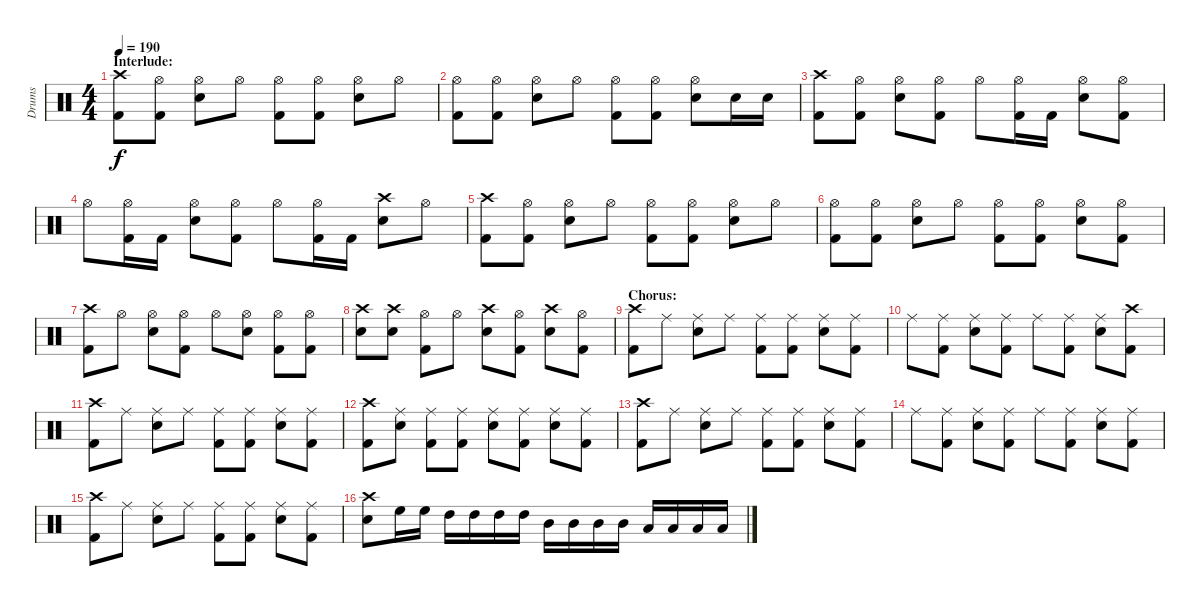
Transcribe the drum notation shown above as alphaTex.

\track ("Drums" "Drums") {instrument percussion}
\staff {score}
\articulation defaults
\ts (4 4)
\section ("" "Interlude:")
\tempo 190
\clef neutral
\ks c
("Crash high (hit)" "Kick (hit) 2").8{dy f} ("Hi-Hat (open)" "Kick (hit) 2").8 ("Hi-Hat (open)" "Electric Snare (hit)").8 "Hi-Hat (open)".8 ("Hi-Hat (open)" "Kick (hit) 2").8 ("Hi-Hat (open)" "Kick (hit) 2").8 ("Hi-Hat (open)" "Electric Snare (hit)").8 "Hi-Hat (open)".8 |
("Hi-Hat (open)" "Kick (hit) 2").8 ("Hi-Hat (open)" "Kick (hit) 2").8 ("Hi-Hat (open)" "Electric Snare (hit)").8 "Hi-Hat (open)".8 ("Hi-Hat (open)" "Kick (hit) 2").8 ("Hi-Hat (open)" "Kick (hit) 2").8 ("Hi-Hat (open)" "Electric Snare (hit)").8 "Electric Snare (hit)".16 "Electric Snare (hit)".16 |
("Crash high (hit)" "Kick (hit) 2").8 ("Hi-Hat (open)" "Kick (hit) 2").8 ("Hi-Hat (open)" "Electric Snare (hit)").8 ("Hi-Hat (open)" "Kick (hit) 2").8 "Hi-Hat (open)".8 ("Hi-Hat (open)" "Kick (hit) 2").16 "Kick (hit) 2".16 ("Hi-Hat (open)" "Electric Snare (hit)").8 ("Hi-Hat (open)" "Kick (hit) 2").8 |
"Hi-Hat (open)".8 ("Hi-Hat (open)" "Kick (hit) 2").16 "Kick (hit) 2".16 ("Hi-Hat (open)" "Electric Snare (hit)").8 ("Hi-Hat (open)" "Kick (hit) 2").8 "Hi-Hat (open)".8 ("Hi-Hat (open)" "Kick (hit) 2").16 "Kick (hit) 2".16 ("Crash high (hit)" "Electric Snare (hit)").8 "Hi-Hat (open)".8 |
("Crash high (hit)" "Kick (hit) 2").8 ("Hi-Hat (open)" "Kick (hit) 2").8 ("Hi-Hat (open)" "Electric Snare (hit)").8 "Hi-Hat (open)".8 ("Hi-Hat (open)" "Kick (hit) 2").8 ("Hi-Hat (open)" "Kick (hit) 2").8 ("Hi-Hat (open)" "Electric Snare (hit)").8 "Hi-Hat (open)".8 |
("Hi-Hat (open)" "Kick (hit) 2").8 ("Hi-Hat (open)" "Kick (hit) 2").8 ("Hi-Hat (open)" "Electric Snare (hit)").8 "Hi-Hat (open)".8 ("Hi-Hat (open)" "Kick (hit) 2").8 ("Hi-Hat (open)" "Kick (hit) 2").8 ("Hi-Hat (open)" "Electric Snare (hit)").8 ("Hi-Hat (open)" "Kick (hit) 2").8 |
("Crash high (hit)" "Kick (hit) 2").8 "Hi-Hat (open)".8 ("Hi-Hat (open)" "Electric Snare (hit)").8 ("Hi-Hat (open)" "Kick (hit) 2").8 "Hi-Hat (open)".8 ("Hi-Hat (open)" "Electric Snare (hit)").8 ("Hi-Hat (open)" "Kick (hit) 2").8 ("Hi-Hat (open)" "Kick (hit) 2").8 |
("Crash high (hit)" "Electric Snare (hit)").8 ("Crash high (hit)" "Electric Snare (hit)").8 ("Hi-Hat (open)" "Kick (hit) 2").8 "Hi-Hat (open)".8 ("Crash high (hit)" "Electric Snare (hit)").8 ("Hi-Hat (open)" "Kick (hit) 2").8 ("Crash high (hit)" "Electric Snare (hit)").8 ("Hi-Hat (open)" "Kick (hit) 2").8 |
\section ("" "Chorus:")
("Crash high (hit)" "Kick (hit) 2").8 "Ride (middle)".8 ("Ride (middle)" "Electric Snare (hit)").8 "Ride (middle)".8 ("Ride (middle)" "Kick (hit) 2").8 ("Ride (middle)" "Kick (hit) 2").8 ("Ride (middle)" "Electric Snare (hit)").8 ("Ride (middle)" "Kick (hit) 2").8 |
"Ride (middle)".8 ("Ride (middle)" "Kick (hit) 2").8 ("Ride (middle)" "Electric Snare (hit)").8 ("Ride (middle)" "Kick (hit) 2").8 "Ride (middle)".8 ("Ride (middle)" "Kick (hit) 2").8 ("Ride (middle)" "Electric Snare (hit)").8 ("Crash high (hit)" "Kick (hit) 2").8 |
("Crash high (hit)" "Kick (hit) 2").8 "Ride (middle)".8 ("Ride (middle)" "Electric Snare (hit)").8 "Ride (middle)".8 ("Ride (middle)" "Kick (hit) 2").8 ("Ride (middle)" "Kick (hit) 2").8 ("Ride (middle)" "Electric Snare (hit)").8 ("Ride (middle)" "Kick (hit) 2").8 |
("Crash high (hit)" "Kick (hit) 2").8 ("Ride (middle)" "Electric Snare (hit)").8 ("Ride (middle)" "Kick (hit) 2").8 ("Ride (middle)" "Kick (hit) 2").8 ("Ride (middle)" "Electric Snare (hit)").8 ("Ride (middle)" "Kick (hit) 2").8 ("Ride (middle)" "Electric Snare (hit)").8 ("Ride (middle)" "Kick (hit) 2").8 |
("Crash high (hit)" "Kick (hit) 2").8 "Ride (middle)".8 ("Ride (middle)" "Electric Snare (hit)").8 "Ride (middle)".8 ("Ride (middle)" "Kick (hit) 2").8 ("Ride (middle)" "Kick (hit) 2").8 ("Ride (middle)" "Electric Snare (hit)").8 ("Ride (middle)" "Kick (hit) 2").8 |
"Ride (middle)".8 ("Ride (middle)" "Kick (hit) 2").8 ("Ride (middle)" "Electric Snare (hit)").8 ("Ride (middle)" "Kick (hit) 2").8 "Ride (middle)".8 ("Ride (middle)" "Kick (hit) 2").8 ("Ride (middle)" "Electric Snare (hit)").8 ("Ride (middle)" "Kick (hit) 2").8 |
("Crash high (hit)" "Kick (hit) 2").8 "Ride (middle)".8 ("Ride (middle)" "Electric Snare (hit)").8 "Ride (middle)".8 ("Ride (middle)" "Kick (hit) 2").8 ("Ride (middle)" "Kick (hit) 2").8 ("Ride (middle)" "Electric Snare (hit)").8 ("Ride (middle)" "Kick (hit) 2").8 |
("Crash high (hit)" "Electric Snare (hit)").8 "High Floor Tom (hit)".16 "High Floor Tom (hit)".16 "High Tom (hit)".16 "High Tom (hit)".16 "High Tom (hit)".16 "High Tom (hit)".16 "Mid Tom (hit)".16 "Mid Tom (hit)".16 "Mid Tom (hit)".16 "Mid Tom (hit)".16 "Low Tom (hit)".16 "Low Tom (hit)".16 "Low Tom (hit)".16 "Low Tom (hit)".16
